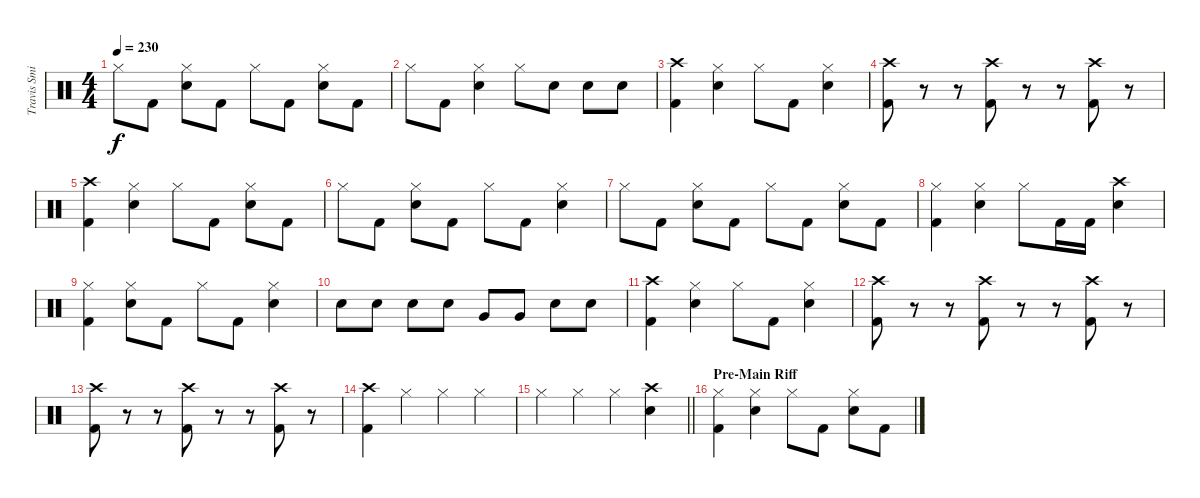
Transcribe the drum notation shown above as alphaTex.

\track ("Travis Smith (Drums)" "Travis Smi") {instrument percussion}
\staff {score}
\articulation defaults
\ts (4 4)
\tempo 230
\clef neutral
\ks c "Hi-Hat (closed)".8{dy f} "Kick (hit) 2".8
("Hi-Hat (closed)" "Electric Snare (hit)").8 "Kick (hit) 2".8 "Hi-Hat (closed)".8 "Kick (hit) 2".8 ("Hi-Hat (closed)" "Electric Snare (hit)").8 "Kick (hit) 2".8 |
"Hi-Hat (closed)".8 "Kick (hit) 2".8 ("Hi-Hat (closed)" "Electric Snare (hit)").4 "Hi-Hat (closed)".8 "Electric Snare (hit)".8 "Electric Snare (hit)".8 "Electric Snare (hit)".8 |
("Crash high (hit)" "Kick (hit) 2").4 ("Hi-Hat (closed)" "Electric Snare (hit)").4 "Hi-Hat (closed)".8 "Kick (hit) 2".8 ("Hi-Hat (closed)" "Electric Snare (hit)").4 |
("Crash high (hit)" "Kick (hit) 2").8 r.8 r.8 ("Crash high (hit)" "Kick (hit) 2").8 r.8 r.8 ("Crash high (hit)" "Kick (hit) 2").8 r.8 |
("Crash high (hit)" "Kick (hit) 2").4 ("Hi-Hat (closed)" "Electric Snare (hit)").4 "Hi-Hat (closed)".8 "Kick (hit) 2".8 ("Hi-Hat (closed)" "Electric Snare (hit)").8 "Kick (hit) 2".8 |
"Hi-Hat (closed)".8 "Kick (hit) 2".8 ("Hi-Hat (closed)" "Electric Snare (hit)").8 "Kick (hit) 2".8 "Hi-Hat (closed)".8 "Kick (hit) 2".8 ("Hi-Hat (closed)" "Electric Snare (hit)").4 |
"Hi-Hat (closed)".8 "Kick (hit) 2".8 ("Hi-Hat (closed)" "Electric Snare (hit)").8 "Kick (hit) 2".8 "Hi-Hat (closed)".8 "Kick (hit) 2".8 ("Hi-Hat (closed)" "Electric Snare (hit)").8 "Kick (hit) 2".8 |
("Hi-Hat (closed)" "Kick (hit) 2").4 ("Hi-Hat (closed)" "Electric Snare (hit)").4 "Hi-Hat (closed)".8 "Kick (hit) 2".16 "Kick (hit) 2".16 ("Crash high (hit)" "Electric Snare (hit)").4 |
("Hi-Hat (closed)" "Kick (hit) 2").4 ("Hi-Hat (closed)" "Electric Snare (hit)").8 "Kick (hit) 2".8 "Hi-Hat (closed)".8 "Kick (hit) 2".8 ("Hi-Hat (closed)" "Electric Snare (hit)").4 |
"Electric Snare (hit)".8 "Electric Snare (hit)".8 "Electric Snare (hit)".8 "Electric Snare (hit)".8 "Very Low Tom (hit)".8 "Very Low Tom (hit)".8 "Electric Snare (hit)".8 "Electric Snare (hit)".8 |
("Crash high (hit)" "Kick (hit) 2").4 ("Hi-Hat (closed)" "Electric Snare (hit)").4 "Hi-Hat (closed)".8 "Kick (hit) 2".8 ("Hi-Hat (closed)" "Electric Snare (hit)").4 |
("Crash high (hit)" "Kick (hit) 2").8 r.8 r.8 ("Crash high (hit)" "Kick (hit) 2").8 r.8 r.8 ("Crash high (hit)" "Kick (hit) 2").8 r.8 |
("Crash high (hit)" "Kick (hit) 2").8 r.8 r.8 ("Crash high (hit)" "Kick (hit) 2").8 r.8 r.8 ("Crash high (hit)" "Kick (hit) 2").8 r.8 |
("Crash high (hit)" "Kick (hit) 2").4 "Hi-Hat (closed)".4 "Hi-Hat (closed)".4 "Hi-Hat (closed)".4 |
\barLineRight lightlight "Hi-Hat (closed)".4 "Hi-Hat (closed)".4 "Hi-Hat (closed)".4
("Crash high (hit)" "Electric Snare (hit)").4 |
\section ("" "Pre-Main Riff")
("Hi-Hat (closed)" "Kick (hit) 2").4 ("Hi-Hat (closed)" "Electric Snare (hit)").4 "Hi-Hat (closed)".8 "Kick (hit) 2".8 ("Hi-Hat (closed)" "Electric Snare (hit)").8 "Kick (hit) 2".8
